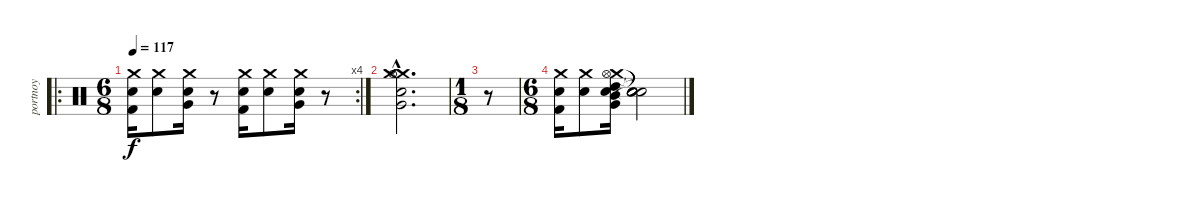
\track ("portnoy" "portnoy") {instrument percussion}
\staff {score}
\articulation defaults
\ro
\rc 4
\ts (6 8)
\tempo 117
\clef neutral
\ks c
("Crash medium (hit)" "Kick (hit) 2" "Electric Snare (hit)").16{dy f} ("Crash medium (hit)" "Electric Snare (hit)").8 ("Crash medium (hit)" "Very Low Tom (hit)" "Electric Snare (hit)").16 r.8 ("Crash medium (hit)" "Kick (hit) 2" "Electric Snare (hit)").16 ("Crash medium (hit)" "Electric Snare (hit)").8 ("Crash medium (hit)" "Very Low Tom (hit)" "Electric Snare (hit)").16 r.8 |
("Crash medium (hit)"{hac} "Hi-Hat (open)"{hac} "Electric Snare (hit)"{hac} "Very Low Tom (hit)"{hac} "Crash medium (hit)"{hac}).2{d} |
\ts (1 8)
r.8 |
\ts (6 8)
("Crash medium (hit)" "Kick (hit) 2" "Electric Snare (hit)").16 ("Crash medium (hit)" "Electric Snare (hit)").8 ("High Tom (hit)" "Crash medium (hit)" "Hi-Hat (open)" "Very Low Tom (hit)" "Electric Snare (hit)" "Mid Tom (hit)").16 ("Snare (hit)"{t} "Snare (hit)"{t} "Snare (hit)"{t} "Snare (hit)"{t} "Snare (hit)"{t} "Snare (hit)"{t}).2
